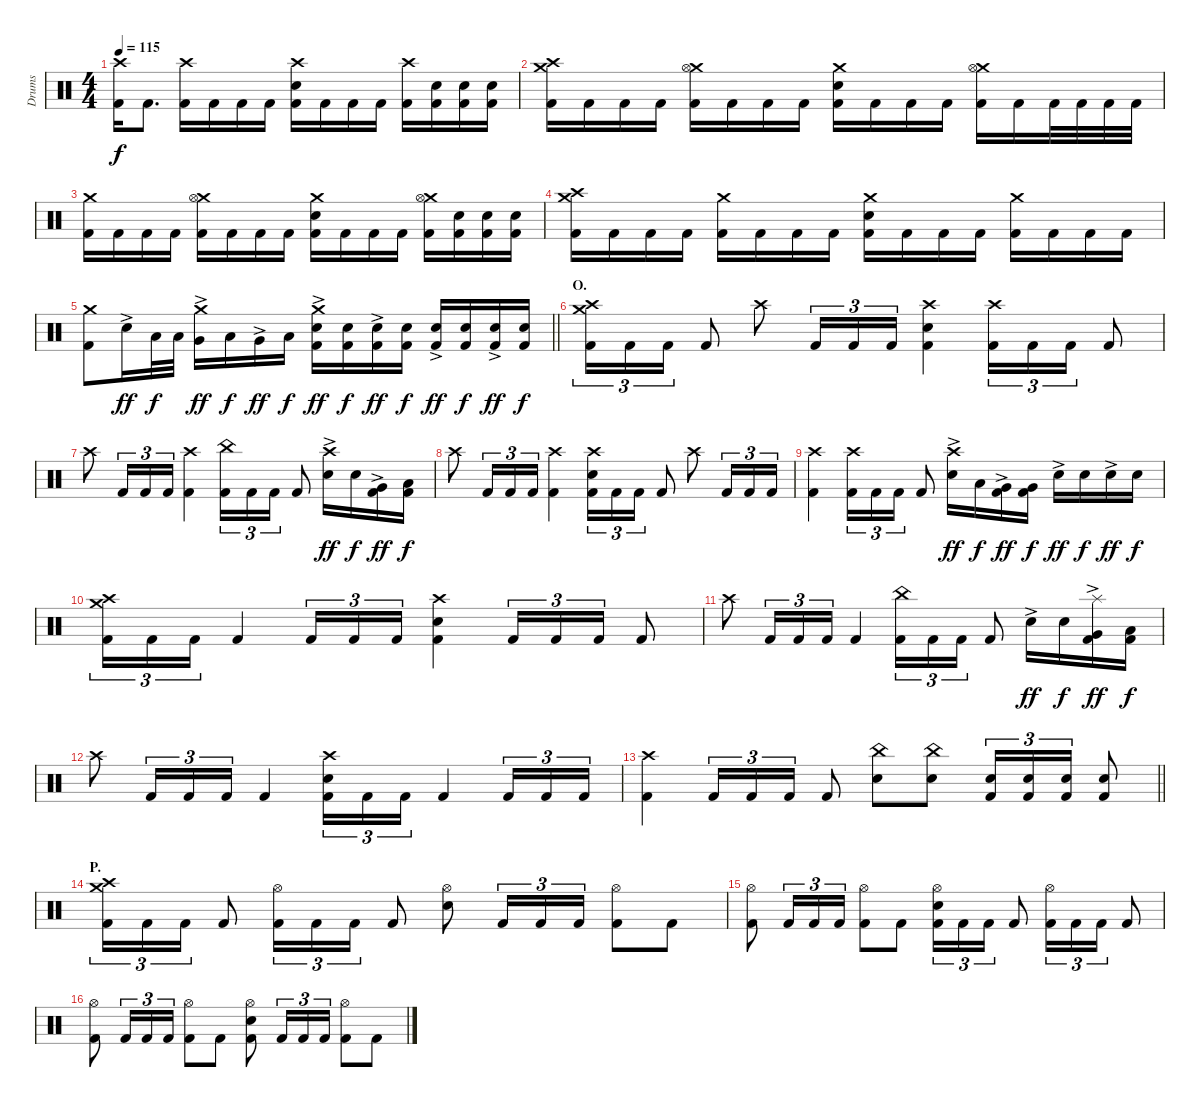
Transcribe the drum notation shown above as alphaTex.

\track ("Drums" "Drums") {instrument percussion}
\staff {score}
\articulation defaults
\ts (4 4)
\tempo 115
\clef neutral
\ks c
("Crash high (hit)" "Kick (hit) 2").16{dy f} "Kick (hit) 2".8{d} ("Crash high (hit)" "Kick (hit) 2").16 "Kick (hit) 2".16 "Kick (hit) 2".16 "Kick (hit) 2".16 ("Crash high (hit)" "Electric Snare (hit)" "Kick (hit) 2").16 "Kick (hit) 2".16 "Kick (hit) 2".16 "Kick (hit) 2".16 ("Crash high (hit)" "Kick (hit) 2").16 ("Electric Snare (hit)" "Kick (hit) 2").16 ("Electric Snare (hit)" "Kick (hit) 2").16 ("Electric Snare (hit)" "Kick (hit) 2").16 |
("Crash medium (hit)" "Crash high (hit)" "Kick (hit) 2").16 "Kick (hit) 2".16 "Kick (hit) 2".16 "Kick (hit) 2".16 ("Crash medium (hit)" "Hi-Hat (open)" "Kick (hit) 2").16 "Kick (hit) 2".16 "Kick (hit) 2".16 "Kick (hit) 2".16 ("Crash medium (hit)" "Electric Snare (hit)" "Kick (hit) 2").16 "Kick (hit) 2".16 "Kick (hit) 2".16 "Kick (hit) 2".16 ("Crash medium (hit)" "Hi-Hat (open)" "Kick (hit) 2").16 "Kick (hit) 2".16 "Kick (hit) 2".32 "Kick (hit) 2".32 "Kick (hit) 2".32 "Kick (hit) 2".32 |
("Crash medium (hit)" "Kick (hit) 2").16 "Kick (hit) 2".16 "Kick (hit) 2".16 "Kick (hit) 2".16 ("Crash medium (hit)" "Hi-Hat (open)" "Kick (hit) 2").16 "Kick (hit) 2".16 "Kick (hit) 2".16 "Kick (hit) 2".16 ("Crash medium (hit)" "Electric Snare (hit)" "Kick (hit) 2").16 "Kick (hit) 2".16 "Kick (hit) 2".16 "Kick (hit) 2".16 ("Crash medium (hit)" "Hi-Hat (open)" "Kick (hit) 2").16 ("Electric Snare (hit)" "Kick (hit) 2").16 ("Electric Snare (hit)" "Kick (hit) 2").16 ("Electric Snare (hit)" "Kick (hit) 2").16 |
("Crash medium (hit)" "Crash high (hit)" "Kick (hit) 2").16 "Kick (hit) 2".16 "Kick (hit) 2".16 "Kick (hit) 2".16 ("Crash medium (hit)" "Kick (hit) 2").16 "Kick (hit) 2".16 "Kick (hit) 2".16 "Kick (hit) 2".16 ("Crash medium (hit)" "Electric Snare (hit)" "Kick (hit) 2").16 "Kick (hit) 2".16 "Kick (hit) 2".16 "Kick (hit) 2".16 ("Crash medium (hit)" "Kick (hit) 2").16 "Kick (hit) 2".16 "Kick (hit) 2".16 "Kick (hit) 2".16 |
\barLineRight lightlight
("Crash medium (hit)" "Kick (hit) 2").8 "Electric Snare (hit)"{ac}.16{dy ff} "Low Tom (hit)".32{dy f} "Low Tom (hit)".32 ("Crash medium (hit)" "Very Low Tom (hit)"{ac}).16{dy ff} "Low Tom (hit)".16{dy f} "Very Low Tom (hit)"{ac}.16{dy ff} "Low Floor Tom (hit)".16{dy f} ("Crash medium (hit)" "Electric Snare (hit)"{ac} "Kick (hit) 2").16{dy ff} ("Electric Snare (hit)" "Kick (hit) 2").16{dy f} ("Electric Snare (hit)"{ac} "Kick (hit) 2").16{dy ff} ("Electric Snare (hit)" "Kick (hit) 2").16{dy f} ("Electric Snare (hit)"{ac} "Kick (hit) 2").16{dy ff} ("Electric Snare (hit)" "Kick (hit) 2").16{dy f} ("Electric Snare (hit)"{ac} "Kick (hit) 2").16{dy ff} ("Electric Snare (hit)" "Kick (hit) 2").16{dy f} |
\section ("" "O.")
("Crash medium (hit)" "Crash high (hit)" "Kick (hit) 2").16{tu (3 2)} "Kick (hit) 2".16{tu (3 2)} "Kick (hit) 2".16{tu (3 2)} "Kick (hit) 2".8 "Crash high (hit)".8 "Kick (hit) 2".16{tu (3 2)} "Kick (hit) 2".16{tu (3 2)} "Kick (hit) 2".16{tu (3 2)} ("Crash high (hit)" "Electric Snare (hit)" "Kick (hit) 2").4 ("Crash high (hit)" "Kick (hit) 2").16{tu (3 2)} "Kick (hit) 2".16{tu (3 2)} "Kick (hit) 2".16{tu (3 2)} "Kick (hit) 2".8 |
"Crash high (hit)".8 "Kick (hit) 2".16{tu (3 2)} "Kick (hit) 2".16{tu (3 2)} "Kick (hit) 2".16{tu (3 2)} ("Crash high (hit)" "Kick (hit) 2").4 ("China (hit)" "Kick (hit) 2").16{tu (3 2)} "Kick (hit) 2".16{tu (3 2)} "Kick (hit) 2".16{tu (3 2)} "Kick (hit) 2".8 ("Crash high (hit)" "Electric Snare (hit)"{ac}).16{dy ff} "Electric Snare (hit)".16{dy f} ("Very Low Tom (hit)"{ac} "Kick (hit) 2").16{dy ff} ("Low Tom (hit)" "Kick (hit) 2").16{dy f} |
"Crash high (hit)".8 "Kick (hit) 2".16{tu (3 2)} "Kick (hit) 2".16{tu (3 2)} "Kick (hit) 2".16{tu (3 2)} ("Crash high (hit)" "Kick (hit) 2").4 ("Crash high (hit)" "Electric Snare (hit)" "Kick (hit) 2").16{tu (3 2)} "Kick (hit) 2".16{tu (3 2)} "Kick (hit) 2".16{tu (3 2)} "Kick (hit) 2".8 "Crash high (hit)".8 "Kick (hit) 2".16{tu (3 2)} "Kick (hit) 2".16{tu (3 2)} "Kick (hit) 2".16{tu (3 2)} |
("Crash high (hit)" "Kick (hit) 2").4 ("Crash high (hit)" "Kick (hit) 2").16{tu (3 2)} "Kick (hit) 2".16{tu (3 2)} "Kick (hit) 2".16{tu (3 2)} "Kick (hit) 2".8 ("Crash high (hit)" "Electric Snare (hit)"{ac}).16{dy ff} "Low Tom (hit)".16{dy f} ("Very Low Tom (hit)"{ac} "Kick (hit) 2").16{dy ff} ("Very Low Tom (hit)" "Kick (hit) 2").16{dy f} "Electric Snare (hit)"{ac}.16{dy ff} "Electric Snare (hit)".16{dy f} "Electric Snare (hit)"{ac}.16{dy ff} "Electric Snare (hit)".16{dy f} |
("Crash medium (hit)" "Crash high (hit)" "Kick (hit) 2").16{tu (3 2)} "Kick (hit) 2".16{tu (3 2)} "Kick (hit) 2".16{tu (3 2)} "Kick (hit) 2".4 "Kick (hit) 2".16{tu (3 2)} "Kick (hit) 2".16{tu (3 2)} "Kick (hit) 2".16{tu (3 2)} ("Crash high (hit)" "Electric Snare (hit)" "Kick (hit) 2").4 "Kick (hit) 2".16{tu (3 2)} "Kick (hit) 2".16{tu (3 2)} "Kick (hit) 2".16{tu (3 2)} "Kick (hit) 2".8 |
"Crash high (hit)".8 "Kick (hit) 2".16{tu (3 2)} "Kick (hit) 2".16{tu (3 2)} "Kick (hit) 2".16{tu (3 2)} "Kick (hit) 2".4 ("China (hit)" "Kick (hit) 2").16{tu (3 2)} "Kick (hit) 2".16{tu (3 2)} "Kick (hit) 2".16{tu (3 2)} "Kick (hit) 2".8 "Electric Snare (hit)"{ac}.16{dy ff} "Electric Snare (hit)".16{dy f} ("Splash (hit)" "Very Low Tom (hit)"{ac} "Kick (hit) 2").16{dy ff} ("Low Tom (hit)" "Kick (hit) 2").16{dy f} |
"Crash high (hit)".8 "Kick (hit) 2".16{tu (3 2)} "Kick (hit) 2".16{tu (3 2)} "Kick (hit) 2".16{tu (3 2)} "Kick (hit) 2".4 ("Crash high (hit)" "Electric Snare (hit)" "Kick (hit) 2").16{tu (3 2)} "Kick (hit) 2".16{tu (3 2)} "Kick (hit) 2".16{tu (3 2)} "Kick (hit) 2".4 "Kick (hit) 2".16{tu (3 2)} "Kick (hit) 2".16{tu (3 2)} "Kick (hit) 2".16{tu (3 2)} |
\barLineRight lightlight
("Crash high (hit)" "Kick (hit) 2").4 "Kick (hit) 2".16{tu (3 2)} "Kick (hit) 2".16{tu (3 2)} "Kick (hit) 2".16{tu (3 2)} "Kick (hit) 2".8 ("China (hit)" "Electric Snare (hit)").8 ("China (hit)" "Electric Snare (hit)").8 ("Electric Snare (hit)" "Kick (hit) 2").16{tu (3 2)} ("Electric Snare (hit)" "Kick (hit) 2").16{tu (3 2)} ("Electric Snare (hit)" "Kick (hit) 2").16{tu (3 2)} ("Electric Snare (hit)" "Kick (hit) 2").8 |
\section ("" "P.")
("Crash medium (hit)" "Crash high (hit)" "Kick (hit) 2").16{tu (3 2)} "Kick (hit) 2".16{tu (3 2)} "Kick (hit) 2".16{tu (3 2)} "Kick (hit) 2".8 ("Hi-Hat (open)" "Kick (hit) 2").16{tu (3 2)} "Kick (hit) 2".16{tu (3 2)} "Kick (hit) 2".16{tu (3 2)} "Kick (hit) 2".8 ("Hi-Hat (open)" "Electric Snare (hit)").8 "Kick (hit) 2".16{tu (3 2)} "Kick (hit) 2".16{tu (3 2)} "Kick (hit) 2".16{tu (3 2)} ("Hi-Hat (open)" "Kick (hit) 2").8 "Kick (hit) 2".8 |
("Hi-Hat (open)" "Kick (hit) 2").8 "Kick (hit) 2".16{tu (3 2)} "Kick (hit) 2".16{tu (3 2)} "Kick (hit) 2".16{tu (3 2)} ("Hi-Hat (open)" "Kick (hit) 2").8 "Kick (hit) 2".8 ("Hi-Hat (open)" "Electric Snare (hit)" "Kick (hit) 2").16{tu (3 2)} "Kick (hit) 2".16{tu (3 2)} "Kick (hit) 2".16{tu (3 2)} "Kick (hit) 2".8 ("Hi-Hat (open)" "Kick (hit) 2").16{tu (3 2)} "Kick (hit) 2".16{tu (3 2)} "Kick (hit) 2".16{tu (3 2)} "Kick (hit) 2".8 |
("Hi-Hat (open)" "Kick (hit) 2").8 "Kick (hit) 2".16{tu (3 2)} "Kick (hit) 2".16{tu (3 2)} "Kick (hit) 2".16{tu (3 2)} ("Hi-Hat (open)" "Kick (hit) 2").8 "Kick (hit) 2".8 ("Hi-Hat (open)" "Electric Snare (hit)" "Kick (hit) 2").8 "Kick (hit) 2".16{tu (3 2)} "Kick (hit) 2".16{tu (3 2)} "Kick (hit) 2".16{tu (3 2)} ("Hi-Hat (open)" "Kick (hit) 2").8 "Kick (hit) 2".8
